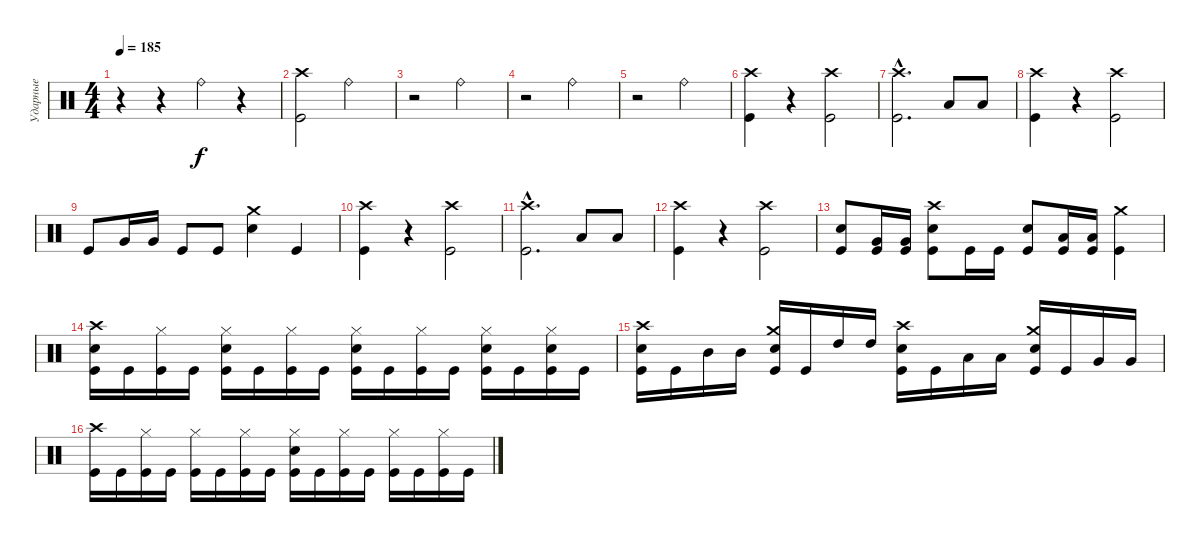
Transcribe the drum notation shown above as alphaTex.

\track ("Ударные" "Ударные") {instrument percussion}
\staff {score}
\articulation defaults
\ts (4 4)
\tempo 185
\clef neutral
\ks c
r.4{dy f} r.4 "Ride (bell)".4 r.4 |
("Crash high (hit)" "Kick (hit)").2 "Ride (bell)".2 |
r.2 "Ride (bell)".2 |
r.2 "Ride (bell)".2 |
r.2 "Ride (bell)".2 |
("Crash high (hit)" "Kick (hit)").4 r.4 ("Crash high (hit)" "Kick (hit)").2 |
("Crash high (hit)"{hac} "Kick (hit)"{hac}).2{d} "Low Tom (hit)".8 "Low Tom (hit)".8 |
("Crash high (hit)" "Kick (hit)").4 r.4 ("Crash high (hit)" "Kick (hit)").2 |
"Kick (hit)".8 "Very Low Tom (hit)".16 "Very Low Tom (hit)".16 "Kick (hit)".8 "Kick (hit)".8 ("Crash medium (hit)" "Electric Snare (hit)").4 "Kick (hit)".4 |
("Crash high (hit)" "Kick (hit)").4 r.4 ("Crash high (hit)" "Kick (hit)").2 |
("Crash high (hit)"{hac} "Kick (hit)"{hac}).2{d} "Low Tom (hit)".8 "Low Tom (hit)".8 |
("Crash high (hit)" "Kick (hit)").4 r.4 ("Crash high (hit)" "Kick (hit)").2 |
("Electric Snare (hit)" "Kick (hit)").8 ("Very Low Tom (hit)" "Kick (hit)").16 ("Very Low Tom (hit)" "Kick (hit)").16 ("Crash high (hit)" "Electric Snare (hit)" "Kick (hit)").8 "Kick (hit)".16 "Kick (hit)".16 ("Electric Snare (hit)" "Kick (hit)").8 ("Low Tom (hit)" "Kick (hit)").16 ("Low Tom (hit)" "Kick (hit)").16 ("Crash medium (hit)" "Kick (hit)").4 |
("Crash high (hit)" "Electric Snare (hit)" "Kick (hit)").16 "Kick (hit)".16 ("Hi-Hat (closed)" "Kick (hit)").16 "Kick (hit)".16 ("Hi-Hat (closed)" "Electric Snare (hit)" "Kick (hit)").16 "Kick (hit)".16 ("Hi-Hat (closed)" "Kick (hit)").16 "Kick (hit)".16 ("Hi-Hat (closed)" "Electric Snare (hit)" "Kick (hit)").16 "Kick (hit)".16 ("Hi-Hat (closed)" "Kick (hit)").16 "Kick (hit)".16 ("Hi-Hat (closed)" "Electric Snare (hit)" "Kick (hit)").16 "Kick (hit)".16 ("Hi-Hat (closed)" "Electric Snare (hit)" "Kick (hit)").16 "Kick (hit)".16 |
("Crash high (hit)" "Electric Snare (hit)" "Kick (hit)").16 "Kick (hit)".16 "Mid Tom (hit)".16 "Mid Tom (hit)".16 ("Crash medium (hit)" "Electric Snare (hit)" "Kick (hit)").16 "Kick (hit)".16 "High Tom (hit)".16 "High Tom (hit)".16 ("Crash high (hit)" "Electric Snare (hit)" "Kick (hit)").16 "Kick (hit)".16 "Low Tom (hit)".16 "Low Tom (hit)".16 ("Crash medium (hit)" "Electric Snare (hit)" "Kick (hit)").16 "Kick (hit)".16 "Very Low Tom (hit)".16 "Very Low Tom (hit)".16 |
("Crash high (hit)" "Kick (hit)").16 "Kick (hit)".16 ("Hi-Hat (closed)" "Kick (hit)").16 "Kick (hit)".16 ("Hi-Hat (closed)" "Kick (hit)").16 "Kick (hit)".16 ("Hi-Hat (closed)" "Kick (hit)").16 "Kick (hit)".16 ("Hi-Hat (closed)" "Electric Snare (hit)" "Kick (hit)").16 "Kick (hit)".16 ("Hi-Hat (closed)" "Kick (hit)").16 "Kick (hit)".16 ("Hi-Hat (closed)" "Kick (hit)").16 "Kick (hit)".16 ("Hi-Hat (closed)" "Kick (hit)").16 "Kick (hit)".16
